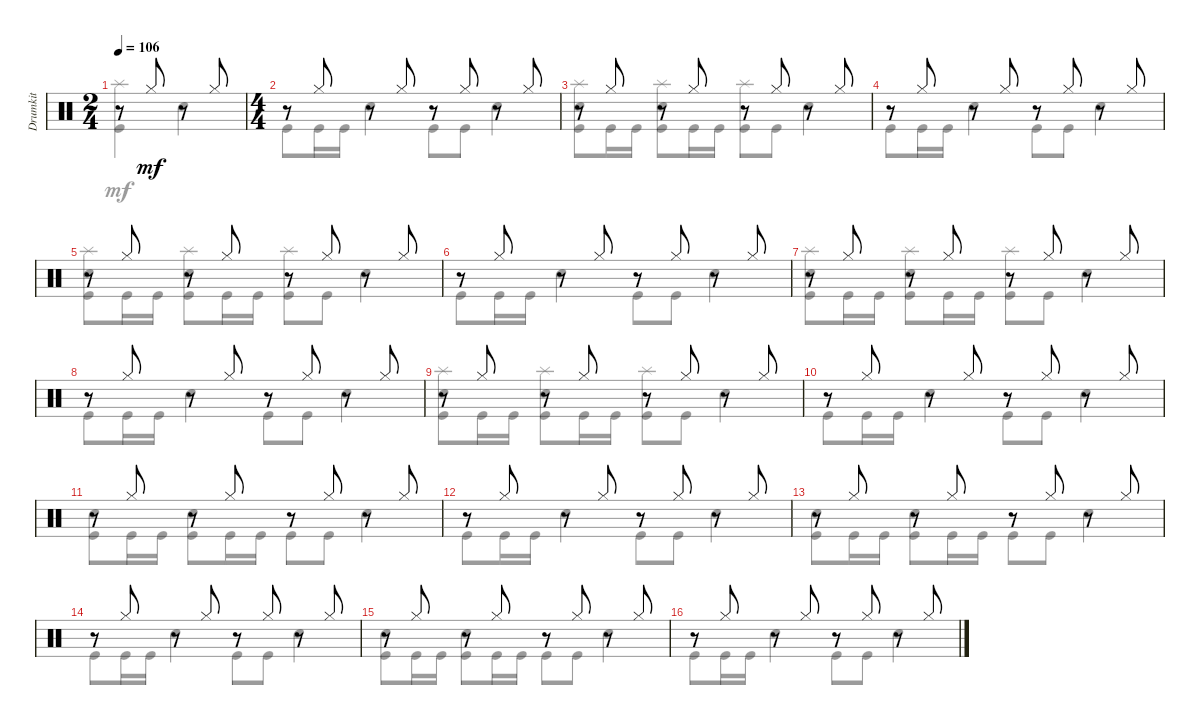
\track ("Drumkit" "Drumkit") {instrument percussion}
\staff {score}
\articulation defaults
\voice
\ts (2 4)
\tempo 106
\clef neutral
\ks c
r.8{dy mf} "Hi-Hat (closed)".8 r.8 "Hi-Hat (closed)".8 |
\ts (4 4)
r.8 "Hi-Hat (closed)".8 r.8 "Hi-Hat (closed)".8 r.8 "Hi-Hat (closed)".8 r.8 "Hi-Hat (closed)".8 |
r.8 "Hi-Hat (closed)".8 r.8 "Hi-Hat (closed)".8 r.8 "Hi-Hat (closed)".8 r.8 "Hi-Hat (closed)".8 |
r.8 "Hi-Hat (closed)".8 r.8 "Hi-Hat (closed)".8 r.8 "Hi-Hat (closed)".8 r.8 "Hi-Hat (closed)".8 |
r.8 "Hi-Hat (closed)".8 r.8 "Hi-Hat (closed)".8 r.8 "Hi-Hat (closed)".8 r.8 "Hi-Hat (closed)".8 |
r.8 "Hi-Hat (closed)".8 r.8 "Hi-Hat (closed)".8 r.8 "Hi-Hat (closed)".8 r.8 "Hi-Hat (closed)".8 |
r.8 "Hi-Hat (closed)".8 r.8 "Hi-Hat (closed)".8 r.8 "Hi-Hat (closed)".8 r.8 "Hi-Hat (closed)".8 |
r.8 "Hi-Hat (closed)".8 r.8 "Hi-Hat (closed)".8 r.8 "Hi-Hat (closed)".8 r.8 "Hi-Hat (closed)".8 |
r.8 "Hi-Hat (closed)".8 r.8 "Hi-Hat (closed)".8 r.8 "Hi-Hat (closed)".8 r.8 "Hi-Hat (closed)".8 |
r.8 "Hi-Hat (closed)".8 r.8 "Hi-Hat (closed)".8 r.8 "Hi-Hat (closed)".8 r.8 "Hi-Hat (closed)".8 |
r.8 "Hi-Hat (closed)".8 r.8 "Hi-Hat (closed)".8 r.8 "Hi-Hat (closed)".8 r.8 "Hi-Hat (closed)".8 |
r.8 "Hi-Hat (closed)".8 r.8 "Hi-Hat (closed)".8 r.8 "Hi-Hat (closed)".8 r.8 "Hi-Hat (closed)".8 |
r.8 "Hi-Hat (closed)".8 r.8 "Hi-Hat (closed)".8 r.8 "Hi-Hat (closed)".8 r.8 "Hi-Hat (closed)".8 |
r.8 "Hi-Hat (closed)".8 r.8 "Hi-Hat (closed)".8 r.8 "Hi-Hat (closed)".8 r.8 "Hi-Hat (closed)".8 |
r.8 "Hi-Hat (closed)".8 r.8 "Hi-Hat (closed)".8 r.8 "Hi-Hat (closed)".8 r.8 "Hi-Hat (closed)".8 |
r.8 "Hi-Hat (closed)".8 r.8 "Hi-Hat (closed)".8 r.8 "Hi-Hat (closed)".8 r.8 "Hi-Hat (closed)".8
\voice
\clef neutral
\ottava regular
\simile none
\ks c
("Kick (hit)" "Splash (hit)").4{dy mf} "Snare (hit) 2".4 |
"Kick (hit)".8 "Kick (hit)".16 "Kick (hit)".16 "Snare (hit) 2".4 "Kick (hit)".8 "Kick (hit)".8 "Snare (hit) 2".4 |
("Kick (hit)" "Splash (hit)" "Snare (hit) 2").8 "Kick (hit)".16 "Kick (hit)".16 ("Splash (hit)" "Kick (hit)" "Snare (hit) 2").8 "Kick (hit)".16 "Kick (hit)".16 ("Kick (hit)" "Splash (hit)").8 "Kick (hit)".8 "Snare (hit) 2".4 |
"Kick (hit)".8 "Kick (hit)".16 "Kick (hit)".16 "Snare (hit) 2".4 "Kick (hit)".8 "Kick (hit)".8 "Snare (hit) 2".4 |
("Kick (hit)" "Splash (hit)" "Snare (hit) 2").8 "Kick (hit)".16 "Kick (hit)".16 ("Splash (hit)" "Kick (hit)" "Snare (hit) 2").8 "Kick (hit)".16 "Kick (hit)".16 ("Kick (hit)" "Splash (hit)").8 "Kick (hit)".8 "Snare (hit) 2".4 |
"Kick (hit)".8 "Kick (hit)".16 "Kick (hit)".16 "Snare (hit) 2".4 "Kick (hit)".8 "Kick (hit)".8 "Snare (hit) 2".4 |
("Kick (hit)" "Splash (hit)" "Snare (hit) 2").8 "Kick (hit)".16 "Kick (hit)".16 ("Splash (hit)" "Kick (hit)" "Snare (hit) 2").8 "Kick (hit)".16 "Kick (hit)".16 ("Kick (hit)" "Splash (hit)").8 "Kick (hit)".8 "Snare (hit) 2".4 |
"Kick (hit)".8 "Kick (hit)".16 "Kick (hit)".16 "Snare (hit) 2".4 "Kick (hit)".8 "Kick (hit)".8 "Snare (hit) 2".4 |
("Kick (hit)" "Splash (hit)" "Snare (hit) 2").8 "Kick (hit)".16 "Kick (hit)".16 ("Splash (hit)" "Kick (hit)" "Snare (hit) 2").8 "Kick (hit)".16 "Kick (hit)".16 ("Kick (hit)" "Splash (hit)").8 "Kick (hit)".8 "Snare (hit) 2".4 |
"Kick (hit)".8 "Kick (hit)".16 "Kick (hit)".16 "Snare (hit) 2".4 "Kick (hit)".8 "Kick (hit)".8 "Snare (hit) 2".4 |
("Kick (hit)" "Snare (hit) 2").8 "Kick (hit)".16 "Kick (hit)".16 ("Kick (hit)" "Snare (hit) 2").8 "Kick (hit)".16 "Kick (hit)".16 "Kick (hit)".8 "Kick (hit)".8 "Snare (hit) 2".4 |
"Kick (hit)".8 "Kick (hit)".16 "Kick (hit)".16 "Snare (hit) 2".4 "Kick (hit)".8 "Kick (hit)".8 "Snare (hit) 2".4 |
("Kick (hit)" "Snare (hit) 2").8 "Kick (hit)".16 "Kick (hit)".16 ("Kick (hit)" "Snare (hit) 2").8 "Kick (hit)".16 "Kick (hit)".16 "Kick (hit)".8 "Kick (hit)".8 "Snare (hit) 2".4 |
"Kick (hit)".8 "Kick (hit)".16 "Kick (hit)".16 "Snare (hit) 2".4 "Kick (hit)".8 "Kick (hit)".8 "Snare (hit) 2".4 |
("Kick (hit)" "Snare (hit) 2").8 "Kick (hit)".16 "Kick (hit)".16 ("Kick (hit)" "Snare (hit) 2").8 "Kick (hit)".16 "Kick (hit)".16 "Kick (hit)".8 "Kick (hit)".8 "Snare (hit) 2".4 |
"Kick (hit)".8 "Kick (hit)".16 "Kick (hit)".16 "Snare (hit) 2".4 "Kick (hit)".8 "Kick (hit)".8 "Snare (hit) 2".4
